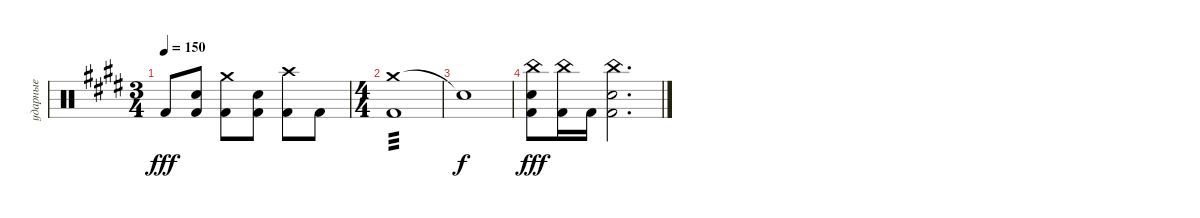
\track ("ударные" "ударные") {instrument percussion}
\staff {score}
\articulation defaults
\ts (3 4)
\tempo 150
\clef neutral
\ks c#minor "Kick (hit) 2".8{dy fff}
("Electric Snare (hit)" "Kick (hit) 2").8 ("Crash medium (hit)" "Kick (hit) 2").8 ("Electric Snare (hit)" "Kick (hit) 2").8 ("Crash high (hit)" "Kick (hit) 2").8 "Kick (hit) 2".8 |
\ts (4 4)
("Crash medium (hit)" "Kick (hit) 2").1{tp 3} |
"Snare (hit)"{t}.1{dy f} |
("China (hit)" "Electric Snare (hit)" "Kick (hit) 2").8{dy fff} ("China (hit)" "Kick (hit) 2").16 "Kick (hit) 2".16 ("China (hit)" "Electric Snare (hit)" "Kick (hit) 2").2{d}
